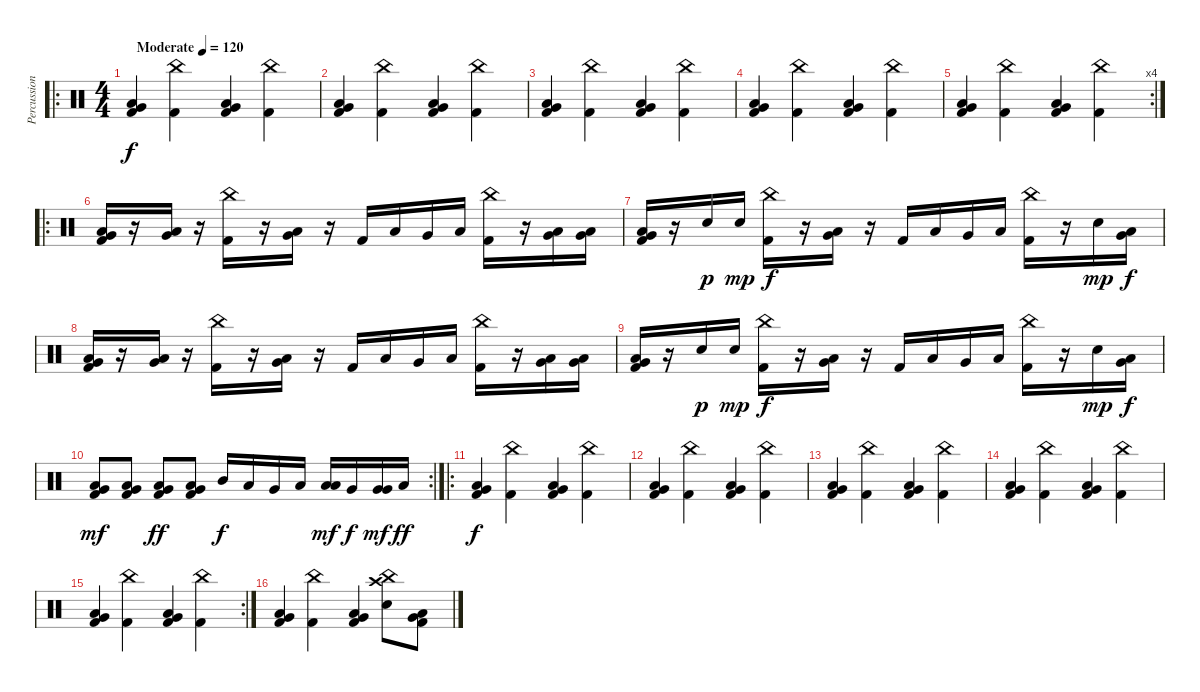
\track ("Percussion" "Percussion") {instrument percussion}
\staff {score}
\articulation defaults
\ro
\ts (4 4)
\tempo (120 "Moderate")
\clef neutral
\ks c
("Very Low Tom (hit)" "Low Floor Tom (hit)" "Kick (hit) 2").4{dy f} ("China (hit)" "Kick (hit) 2").4 ("Very Low Tom (hit)" "Low Floor Tom (hit)" "Kick (hit) 2").4 ("China (hit)" "Kick (hit) 2").4 |
("Very Low Tom (hit)" "Low Floor Tom (hit)" "Kick (hit) 2").4 ("China (hit)" "Kick (hit) 2").4 ("Very Low Tom (hit)" "Low Floor Tom (hit)" "Kick (hit) 2").4 ("China (hit)" "Kick (hit) 2").4 |
("Very Low Tom (hit)" "Low Floor Tom (hit)" "Kick (hit) 2").4 ("China (hit)" "Kick (hit) 2").4 ("Very Low Tom (hit)" "Low Floor Tom (hit)" "Kick (hit) 2").4 ("China (hit)" "Kick (hit) 2").4 |
("Very Low Tom (hit)" "Low Floor Tom (hit)" "Kick (hit) 2").4 ("China (hit)" "Kick (hit) 2").4 ("Very Low Tom (hit)" "Low Floor Tom (hit)" "Kick (hit) 2").4 ("China (hit)" "Kick (hit) 2").4 |
\rc 4
("Very Low Tom (hit)" "Low Floor Tom (hit)" "Kick (hit) 2").4 ("China (hit)" "Kick (hit) 2").4 ("Very Low Tom (hit)" "Low Floor Tom (hit)" "Kick (hit) 2").4 ("China (hit)" "Kick (hit) 2").4 |
\ro
("Very Low Tom (hit)" "Low Floor Tom (hit)" "Kick (hit) 2").16 r.16 ("Very Low Tom (hit)" "Low Floor Tom (hit)").16 r.16 ("China (hit)" "Kick (hit) 2").16 r.16 ("Low Tom (hit)" "Very Low Tom (hit)").16 r.16 "Kick (hit) 2".16 "Low Tom (hit)".16 "Very Low Tom (hit)".16 "Low Floor Tom (hit)".16 ("China (hit)" "Kick (hit) 2").16 r.16 ("Very Low Tom (hit)" "Low Floor Tom (hit)").16 ("Very Low Tom (hit)" "Low Floor Tom (hit)").16 |
("Very Low Tom (hit)" "Low Floor Tom (hit)" "Kick (hit) 2").16 r.16 "Snare (hit) 2".16{dy p} "Snare (hit) 2".16{dy mp} ("China (hit)" "Kick (hit) 2").16{dy f} r.16 ("Low Tom (hit)" "Very Low Tom (hit)").16 r.16 "Kick (hit) 2".16 "Low Tom (hit)".16 "Very Low Tom (hit)".16 "Low Floor Tom (hit)".16 ("China (hit)" "Kick (hit) 2").16 r.16 "Snare (hit) 2".16{dy mp} ("Very Low Tom (hit)" "Low Floor Tom (hit)").16{dy f} |
("Very Low Tom (hit)" "Low Floor Tom (hit)" "Kick (hit) 2").16 r.16 ("Very Low Tom (hit)" "Low Floor Tom (hit)").16 r.16 ("China (hit)" "Kick (hit) 2").16 r.16 ("Low Tom (hit)" "Very Low Tom (hit)").16 r.16 "Kick (hit) 2".16 "Low Tom (hit)".16 "Very Low Tom (hit)".16 "Low Floor Tom (hit)".16 ("China (hit)" "Kick (hit) 2").16 r.16 ("Very Low Tom (hit)" "Low Floor Tom (hit)").16 ("Very Low Tom (hit)" "Low Floor Tom (hit)").16 |
("Very Low Tom (hit)" "Low Floor Tom (hit)" "Kick (hit) 2").16 r.16 "Snare (hit) 2".16{dy p} "Snare (hit) 2".16{dy mp} ("China (hit)" "Kick (hit) 2").16{dy f} r.16 ("Low Tom (hit)" "Very Low Tom (hit)").16 r.16 "Kick (hit) 2".16 "Low Tom (hit)".16 "Very Low Tom (hit)".16 "Low Floor Tom (hit)".16 ("China (hit)" "Kick (hit) 2").16 r.16 "Snare (hit) 2".16{dy mp} ("Very Low Tom (hit)" "Low Floor Tom (hit)").16{dy f} |
\rc 2
("Low Tom (hit)" "Very Low Tom (hit)" "Kick (hit) 2").8{dy mf} ("Low Tom (hit)" "Very Low Tom (hit)" "Kick (hit) 2").8 ("Very Low Tom (hit)" "Low Floor Tom (hit)" "Kick (hit) 2").8{dy ff} ("Very Low Tom (hit)" "Low Floor Tom (hit)" "Kick (hit) 2").8 "Mid Tom (hit)".16{dy f} "Low Tom (hit)".16 "Very Low Tom (hit)".16 "Low Floor Tom (hit)".16 ("Low Floor Tom (hit)" "Low Floor Tom (hit)").16{dy mf} "Very Low Tom (hit)".16{dy f} ("Very Low Tom (hit)" "Very Low Tom (hit)").16{dy mf} "Low Floor Tom (hit)".16{dy ff} |
\ro
("Very Low Tom (hit)" "Low Floor Tom (hit)" "Kick (hit) 2").4{dy f} ("China (hit)" "Kick (hit) 2").4 ("Very Low Tom (hit)" "Low Floor Tom (hit)" "Kick (hit) 2").4 ("China (hit)" "Kick (hit) 2").4 |
("Very Low Tom (hit)" "Low Floor Tom (hit)" "Kick (hit) 2").4 ("China (hit)" "Kick (hit) 2").4 ("Very Low Tom (hit)" "Low Floor Tom (hit)" "Kick (hit) 2").4 ("China (hit)" "Kick (hit) 2").4 |
("Very Low Tom (hit)" "Low Floor Tom (hit)" "Kick (hit) 2").4 ("China (hit)" "Kick (hit) 2").4 ("Very Low Tom (hit)" "Low Floor Tom (hit)" "Kick (hit) 2").4 ("China (hit)" "Kick (hit) 2").4 |
("Very Low Tom (hit)" "Low Floor Tom (hit)" "Kick (hit) 2").4 ("China (hit)" "Kick (hit) 2").4 ("Very Low Tom (hit)" "Low Floor Tom (hit)" "Kick (hit) 2").4 ("China (hit)" "Kick (hit) 2").4 |
\rc 2
("Very Low Tom (hit)" "Low Floor Tom (hit)" "Kick (hit) 2").4 ("China (hit)" "Kick (hit) 2").4 ("Very Low Tom (hit)" "Low Floor Tom (hit)" "Kick (hit) 2").4 ("China (hit)" "Kick (hit) 2").4 |
("Very Low Tom (hit)" "Low Floor Tom (hit)" "Kick (hit) 2").4 ("China (hit)" "Kick (hit) 2").4 ("Very Low Tom (hit)" "Low Floor Tom (hit)" "Kick (hit) 2").4 ("China (hit)" "Crash high (hit)" "Snare (hit) 2").8 ("Very Low Tom (hit)" "Low Floor Tom (hit)" "Kick (hit) 2").8
